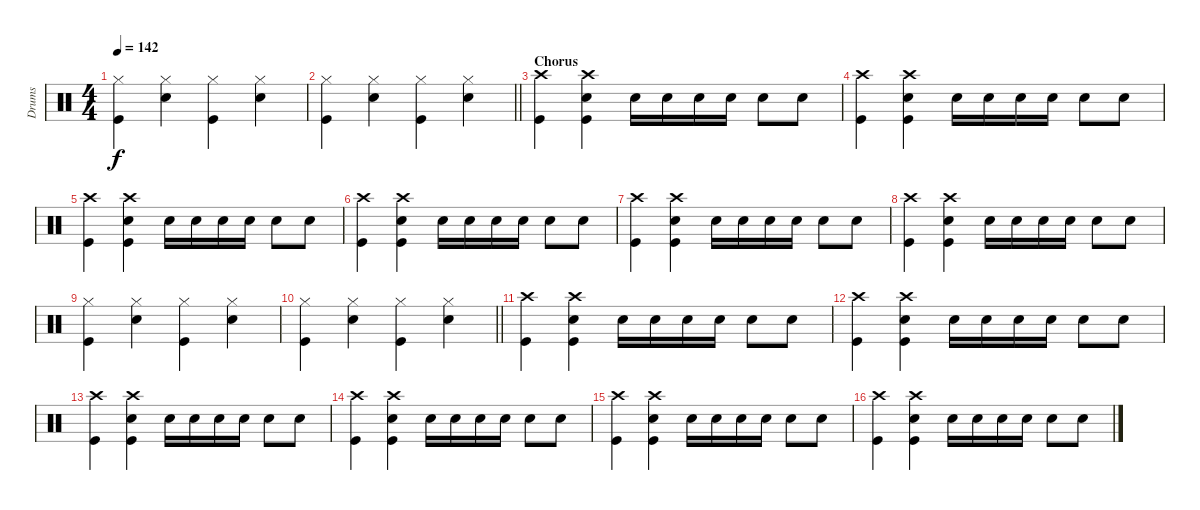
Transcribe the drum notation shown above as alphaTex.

\track ("Drums" "Drums") {instrument percussion}
\staff {score}
\articulation defaults
\ts (4 4)
\tempo 142
\clef neutral
\ks c
("Hi-Hat (closed)" "Kick (hit)").4{dy f} ("Hi-Hat (closed)" "Snare (hit) 2").4 ("Hi-Hat (closed)" "Kick (hit)").4 ("Hi-Hat (closed)" "Snare (hit) 2").4 |
\barLineRight lightlight
("Hi-Hat (closed)" "Kick (hit)").4 ("Hi-Hat (closed)" "Snare (hit) 2").4 ("Hi-Hat (closed)" "Kick (hit)").4 ("Hi-Hat (closed)" "Snare (hit) 2").4 |
\section ("" "Chorus")
("Crash high (hit)" "Kick (hit)").4 ("Crash high (hit)" "Snare (hit) 2" "Kick (hit)").4 "Snare (hit) 2".16 "Snare (hit) 2".16 "Snare (hit) 2".16 "Snare (hit) 2".16 "Snare (hit) 2".8 "Snare (hit) 2".8 |
("Crash high (hit)" "Kick (hit)").4 ("Crash high (hit)" "Snare (hit) 2" "Kick (hit)").4 "Snare (hit) 2".16 "Snare (hit) 2".16 "Snare (hit) 2".16 "Snare (hit) 2".16 "Snare (hit) 2".8 "Snare (hit) 2".8 |
("Crash high (hit)" "Kick (hit)").4 ("Crash high (hit)" "Snare (hit) 2" "Kick (hit)").4 "Snare (hit) 2".16 "Snare (hit) 2".16 "Snare (hit) 2".16 "Snare (hit) 2".16 "Snare (hit) 2".8 "Snare (hit) 2".8 |
("Crash high (hit)" "Kick (hit)").4 ("Crash high (hit)" "Snare (hit) 2" "Kick (hit)").4 "Snare (hit) 2".16 "Snare (hit) 2".16 "Snare (hit) 2".16 "Snare (hit) 2".16 "Snare (hit) 2".8 "Snare (hit) 2".8 |
("Crash high (hit)" "Kick (hit)").4 ("Crash high (hit)" "Snare (hit) 2" "Kick (hit)").4 "Snare (hit) 2".16 "Snare (hit) 2".16 "Snare (hit) 2".16 "Snare (hit) 2".16 "Snare (hit) 2".8 "Snare (hit) 2".8 |
("Crash high (hit)" "Kick (hit)").4 ("Crash high (hit)" "Snare (hit) 2" "Kick (hit)").4 "Snare (hit) 2".16 "Snare (hit) 2".16 "Snare (hit) 2".16 "Snare (hit) 2".16 "Snare (hit) 2".8 "Snare (hit) 2".8 |
("Hi-Hat (closed)" "Kick (hit)").4 ("Hi-Hat (closed)" "Snare (hit) 2").4 ("Hi-Hat (closed)" "Kick (hit)").4 ("Hi-Hat (closed)" "Snare (hit) 2").4 |
\barLineRight lightlight
("Hi-Hat (closed)" "Kick (hit)").4 ("Hi-Hat (closed)" "Snare (hit) 2").4 ("Hi-Hat (closed)" "Kick (hit)").4 ("Hi-Hat (closed)" "Snare (hit) 2").4 |
("Crash high (hit)" "Kick (hit)").4 ("Crash high (hit)" "Snare (hit) 2" "Kick (hit)").4 "Snare (hit) 2".16 "Snare (hit) 2".16 "Snare (hit) 2".16 "Snare (hit) 2".16 "Snare (hit) 2".8 "Snare (hit) 2".8 |
("Crash high (hit)" "Kick (hit)").4 ("Crash high (hit)" "Snare (hit) 2" "Kick (hit)").4 "Snare (hit) 2".16 "Snare (hit) 2".16 "Snare (hit) 2".16 "Snare (hit) 2".16 "Snare (hit) 2".8 "Snare (hit) 2".8 |
("Crash high (hit)" "Kick (hit)").4 ("Crash high (hit)" "Snare (hit) 2" "Kick (hit)").4 "Snare (hit) 2".16 "Snare (hit) 2".16 "Snare (hit) 2".16 "Snare (hit) 2".16 "Snare (hit) 2".8 "Snare (hit) 2".8 |
("Crash high (hit)" "Kick (hit)").4 ("Crash high (hit)" "Snare (hit) 2" "Kick (hit)").4 "Snare (hit) 2".16 "Snare (hit) 2".16 "Snare (hit) 2".16 "Snare (hit) 2".16 "Snare (hit) 2".8 "Snare (hit) 2".8 |
("Crash high (hit)" "Kick (hit)").4 ("Crash high (hit)" "Snare (hit) 2" "Kick (hit)").4 "Snare (hit) 2".16 "Snare (hit) 2".16 "Snare (hit) 2".16 "Snare (hit) 2".16 "Snare (hit) 2".8 "Snare (hit) 2".8 |
("Crash high (hit)" "Kick (hit)").4 ("Crash high (hit)" "Snare (hit) 2" "Kick (hit)").4 "Snare (hit) 2".16 "Snare (hit) 2".16 "Snare (hit) 2".16 "Snare (hit) 2".16 "Snare (hit) 2".8 "Snare (hit) 2".8
